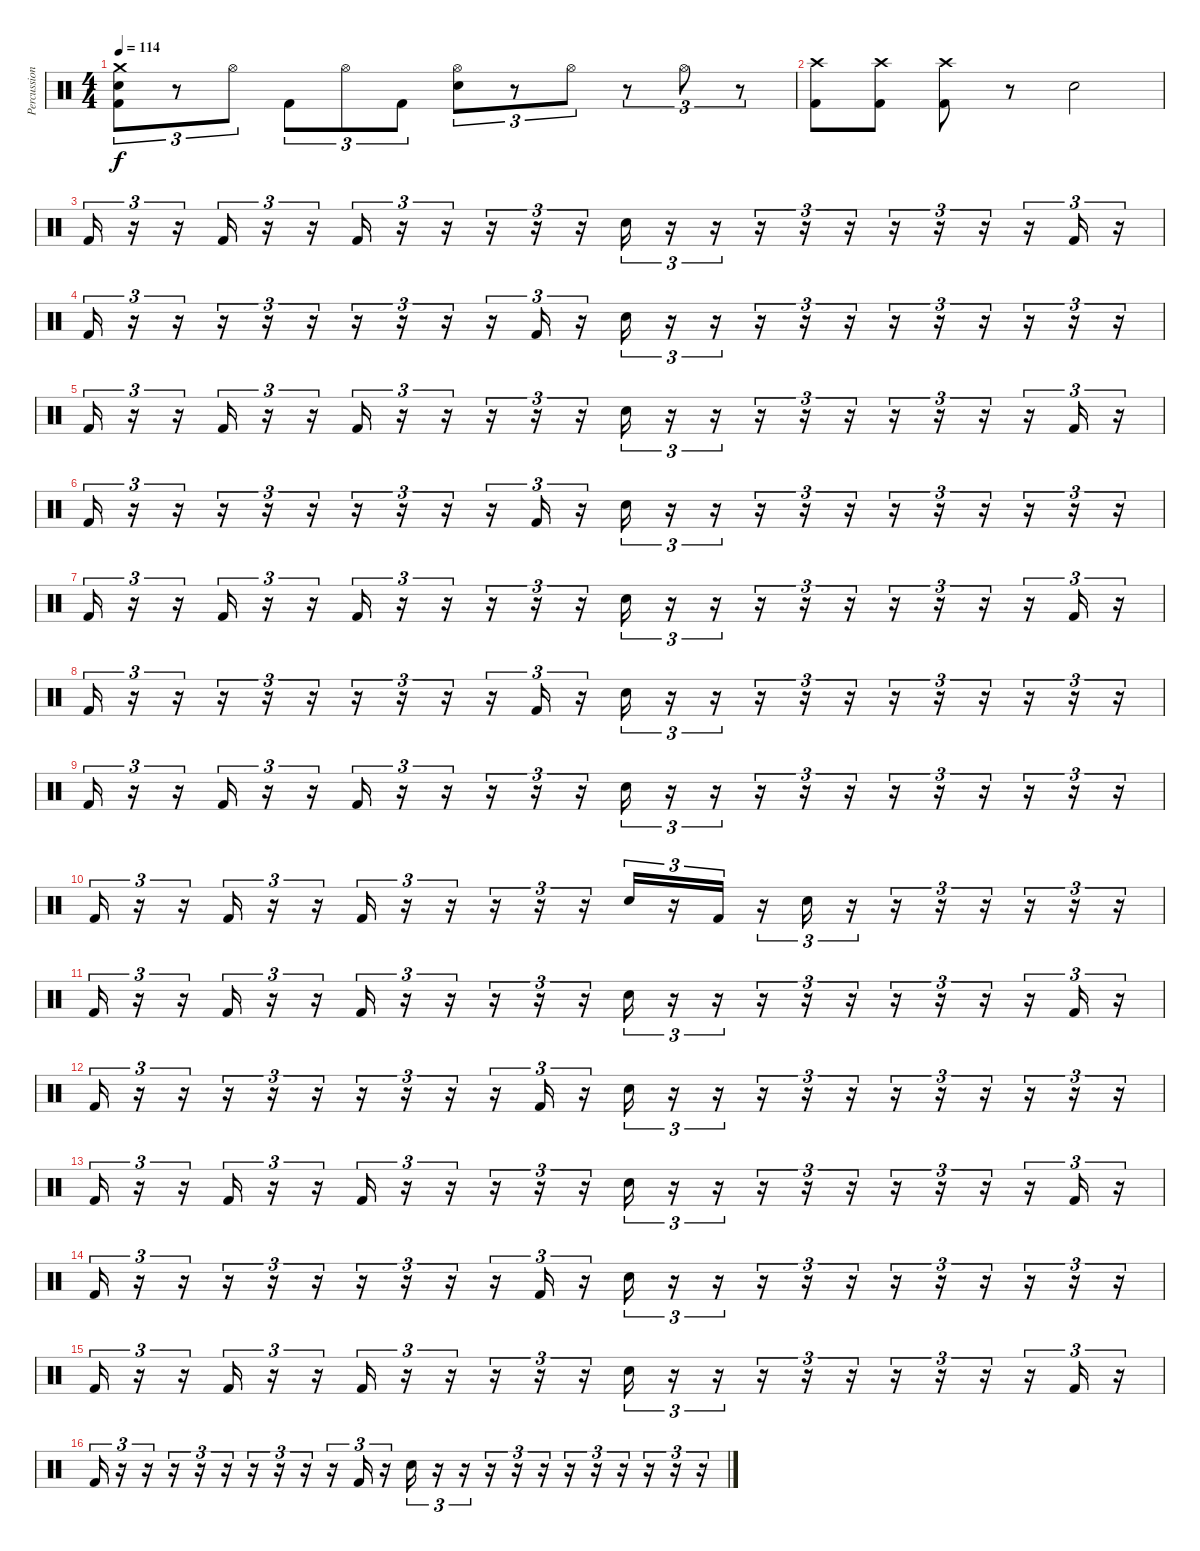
\track ("Percussion" "Percussion") {instrument percussion}
\staff {score}
\articulation defaults
\ts (4 4)
\tempo 114
\clef neutral
\ks c
("Crash medium (hit)" "Electric Snare (hit)" "Kick (hit) 2").8{tu (3 2) dy f} r.8{tu (3 2)} "Hi-Hat (open)".8{tu (3 2)} "Kick (hit) 2".8{tu (3 2)} "Hi-Hat (open)".8{tu (3 2)} "Kick (hit) 2".8{tu (3 2)} ("Hi-Hat (open)" "Electric Snare (hit)").8{tu (3 2)} r.8{tu (3 2)} "Hi-Hat (open)".8{tu (3 2)} r.8{tu (3 2)} "Hi-Hat (open)".8{tu (3 2)} r.8{tu (3 2)} |
("Crash high (hit)" "Kick (hit) 2").8 ("Crash high (hit)" "Kick (hit) 2").8 ("Crash high (hit)" "Kick (hit) 2").8 r.8 "Electric Snare (hit)".2 |
"Kick (hit) 2".16{tu (3 2)} r.16{tu (3 2)} r.16{tu (3 2)} "Kick (hit) 2".16{tu (3 2)} r.16{tu (3 2)} r.16{tu (3 2)} "Kick (hit) 2".16{tu (3 2)} r.16{tu (3 2)} r.16{tu (3 2)} r.16{tu (3 2)} r.16{tu (3 2)} r.16{tu (3 2)} "Electric Snare (hit)".16{tu (3 2)} r.16{tu (3 2)} r.16{tu (3 2)} r.16{tu (3 2)} r.16{tu (3 2)} r.16{tu (3 2)} r.16{tu (3 2)} r.16{tu (3 2)} r.16{tu (3 2)} r.16{tu (3 2)} "Kick (hit) 2".16{tu (3 2)} r.16{tu (3 2)} |
"Kick (hit) 2".16{tu (3 2)} r.16{tu (3 2)} r.16{tu (3 2)} r.16{tu (3 2)} r.16{tu (3 2)} r.16{tu (3 2)} r.16{tu (3 2)} r.16{tu (3 2)} r.16{tu (3 2)} r.16{tu (3 2)} "Kick (hit) 2".16{tu (3 2)} r.16{tu (3 2)} "Electric Snare (hit)".16{tu (3 2)} r.16{tu (3 2)} r.16{tu (3 2)} r.16{tu (3 2)} r.16{tu (3 2)} r.16{tu (3 2)} r.16{tu (3 2)} r.16{tu (3 2)} r.16{tu (3 2)} r.16{tu (3 2)} r.16{tu (3 2)} r.16{tu (3 2)} |
"Kick (hit) 2".16{tu (3 2)} r.16{tu (3 2)} r.16{tu (3 2)} "Kick (hit) 2".16{tu (3 2)} r.16{tu (3 2)} r.16{tu (3 2)} "Kick (hit) 2".16{tu (3 2)} r.16{tu (3 2)} r.16{tu (3 2)} r.16{tu (3 2)} r.16{tu (3 2)} r.16{tu (3 2)} "Electric Snare (hit)".16{tu (3 2)} r.16{tu (3 2)} r.16{tu (3 2)} r.16{tu (3 2)} r.16{tu (3 2)} r.16{tu (3 2)} r.16{tu (3 2)} r.16{tu (3 2)} r.16{tu (3 2)} r.16{tu (3 2)} "Kick (hit) 2".16{tu (3 2)} r.16{tu (3 2)} |
"Kick (hit) 2".16{tu (3 2)} r.16{tu (3 2)} r.16{tu (3 2)} r.16{tu (3 2)} r.16{tu (3 2)} r.16{tu (3 2)} r.16{tu (3 2)} r.16{tu (3 2)} r.16{tu (3 2)} r.16{tu (3 2)} "Kick (hit) 2".16{tu (3 2)} r.16{tu (3 2)} "Electric Snare (hit)".16{tu (3 2)} r.16{tu (3 2)} r.16{tu (3 2)} r.16{tu (3 2)} r.16{tu (3 2)} r.16{tu (3 2)} r.16{tu (3 2)} r.16{tu (3 2)} r.16{tu (3 2)} r.16{tu (3 2)} r.16{tu (3 2)} r.16{tu (3 2)} |
"Kick (hit) 2".16{tu (3 2)} r.16{tu (3 2)} r.16{tu (3 2)} "Kick (hit) 2".16{tu (3 2)} r.16{tu (3 2)} r.16{tu (3 2)} "Kick (hit) 2".16{tu (3 2)} r.16{tu (3 2)} r.16{tu (3 2)} r.16{tu (3 2)} r.16{tu (3 2)} r.16{tu (3 2)} "Electric Snare (hit)".16{tu (3 2)} r.16{tu (3 2)} r.16{tu (3 2)} r.16{tu (3 2)} r.16{tu (3 2)} r.16{tu (3 2)} r.16{tu (3 2)} r.16{tu (3 2)} r.16{tu (3 2)} r.16{tu (3 2)} "Kick (hit) 2".16{tu (3 2)} r.16{tu (3 2)} |
"Kick (hit) 2".16{tu (3 2)} r.16{tu (3 2)} r.16{tu (3 2)} r.16{tu (3 2)} r.16{tu (3 2)} r.16{tu (3 2)} r.16{tu (3 2)} r.16{tu (3 2)} r.16{tu (3 2)} r.16{tu (3 2)} "Kick (hit) 2".16{tu (3 2)} r.16{tu (3 2)} "Electric Snare (hit)".16{tu (3 2)} r.16{tu (3 2)} r.16{tu (3 2)} r.16{tu (3 2)} r.16{tu (3 2)} r.16{tu (3 2)} r.16{tu (3 2)} r.16{tu (3 2)} r.16{tu (3 2)} r.16{tu (3 2)} r.16{tu (3 2)} r.16{tu (3 2)} |
"Kick (hit) 2".16{tu (3 2)} r.16{tu (3 2)} r.16{tu (3 2)} "Kick (hit) 2".16{tu (3 2)} r.16{tu (3 2)} r.16{tu (3 2)} "Kick (hit) 2".16{tu (3 2)} r.16{tu (3 2)} r.16{tu (3 2)} r.16{tu (3 2)} r.16{tu (3 2)} r.16{tu (3 2)} "Electric Snare (hit)".16{tu (3 2)} r.16{tu (3 2)} r.16{tu (3 2)} r.16{tu (3 2)} r.16{tu (3 2)} r.16{tu (3 2)} r.16{tu (3 2)} r.16{tu (3 2)} r.16{tu (3 2)} r.16{tu (3 2)} r.16{tu (3 2)} r.16{tu (3 2)} |
"Kick (hit) 2".16{tu (3 2)} r.16{tu (3 2)} r.16{tu (3 2)} "Kick (hit) 2".16{tu (3 2)} r.16{tu (3 2)} r.16{tu (3 2)} "Kick (hit) 2".16{tu (3 2)} r.16{tu (3 2)} r.16{tu (3 2)} r.16{tu (3 2)} r.16{tu (3 2)} r.16{tu (3 2)} "Electric Snare (hit)".16{tu (3 2)} r.16{tu (3 2)} "Kick (hit) 2".16{tu (3 2)} r.16{tu (3 2)} "Electric Snare (hit)".16{tu (3 2)} r.16{tu (3 2)} r.16{tu (3 2)} r.16{tu (3 2)} r.16{tu (3 2)} r.16{tu (3 2)} r.16{tu (3 2)} r.16{tu (3 2)} |
"Kick (hit) 2".16{tu (3 2)} r.16{tu (3 2)} r.16{tu (3 2)} "Kick (hit) 2".16{tu (3 2)} r.16{tu (3 2)} r.16{tu (3 2)} "Kick (hit) 2".16{tu (3 2)} r.16{tu (3 2)} r.16{tu (3 2)} r.16{tu (3 2)} r.16{tu (3 2)} r.16{tu (3 2)} "Electric Snare (hit)".16{tu (3 2)} r.16{tu (3 2)} r.16{tu (3 2)} r.16{tu (3 2)} r.16{tu (3 2)} r.16{tu (3 2)} r.16{tu (3 2)} r.16{tu (3 2)} r.16{tu (3 2)} r.16{tu (3 2)} "Kick (hit) 2".16{tu (3 2)} r.16{tu (3 2)} |
"Kick (hit) 2".16{tu (3 2)} r.16{tu (3 2)} r.16{tu (3 2)} r.16{tu (3 2)} r.16{tu (3 2)} r.16{tu (3 2)} r.16{tu (3 2)} r.16{tu (3 2)} r.16{tu (3 2)} r.16{tu (3 2)} "Kick (hit) 2".16{tu (3 2)} r.16{tu (3 2)} "Electric Snare (hit)".16{tu (3 2)} r.16{tu (3 2)} r.16{tu (3 2)} r.16{tu (3 2)} r.16{tu (3 2)} r.16{tu (3 2)} r.16{tu (3 2)} r.16{tu (3 2)} r.16{tu (3 2)} r.16{tu (3 2)} r.16{tu (3 2)} r.16{tu (3 2)} |
"Kick (hit) 2".16{tu (3 2)} r.16{tu (3 2)} r.16{tu (3 2)} "Kick (hit) 2".16{tu (3 2)} r.16{tu (3 2)} r.16{tu (3 2)} "Kick (hit) 2".16{tu (3 2)} r.16{tu (3 2)} r.16{tu (3 2)} r.16{tu (3 2)} r.16{tu (3 2)} r.16{tu (3 2)} "Electric Snare (hit)".16{tu (3 2)} r.16{tu (3 2)} r.16{tu (3 2)} r.16{tu (3 2)} r.16{tu (3 2)} r.16{tu (3 2)} r.16{tu (3 2)} r.16{tu (3 2)} r.16{tu (3 2)} r.16{tu (3 2)} "Kick (hit) 2".16{tu (3 2)} r.16{tu (3 2)} |
"Kick (hit) 2".16{tu (3 2)} r.16{tu (3 2)} r.16{tu (3 2)} r.16{tu (3 2)} r.16{tu (3 2)} r.16{tu (3 2)} r.16{tu (3 2)} r.16{tu (3 2)} r.16{tu (3 2)} r.16{tu (3 2)} "Kick (hit) 2".16{tu (3 2)} r.16{tu (3 2)} "Electric Snare (hit)".16{tu (3 2)} r.16{tu (3 2)} r.16{tu (3 2)} r.16{tu (3 2)} r.16{tu (3 2)} r.16{tu (3 2)} r.16{tu (3 2)} r.16{tu (3 2)} r.16{tu (3 2)} r.16{tu (3 2)} r.16{tu (3 2)} r.16{tu (3 2)} |
"Kick (hit) 2".16{tu (3 2)} r.16{tu (3 2)} r.16{tu (3 2)} "Kick (hit) 2".16{tu (3 2)} r.16{tu (3 2)} r.16{tu (3 2)} "Kick (hit) 2".16{tu (3 2)} r.16{tu (3 2)} r.16{tu (3 2)} r.16{tu (3 2)} r.16{tu (3 2)} r.16{tu (3 2)} "Electric Snare (hit)".16{tu (3 2)} r.16{tu (3 2)} r.16{tu (3 2)} r.16{tu (3 2)} r.16{tu (3 2)} r.16{tu (3 2)} r.16{tu (3 2)} r.16{tu (3 2)} r.16{tu (3 2)} r.16{tu (3 2)} "Kick (hit) 2".16{tu (3 2)} r.16{tu (3 2)} |
"Kick (hit) 2".16{tu (3 2)} r.16{tu (3 2)} r.16{tu (3 2)} r.16{tu (3 2)} r.16{tu (3 2)} r.16{tu (3 2)} r.16{tu (3 2)} r.16{tu (3 2)} r.16{tu (3 2)} r.16{tu (3 2)} "Kick (hit) 2".16{tu (3 2)} r.16{tu (3 2)} "Electric Snare (hit)".16{tu (3 2)} r.16{tu (3 2)} r.16{tu (3 2)} r.16{tu (3 2)} r.16{tu (3 2)} r.16{tu (3 2)} r.16{tu (3 2)} r.16{tu (3 2)} r.16{tu (3 2)} r.16{tu (3 2)} r.16{tu (3 2)} r.16{tu (3 2)}
